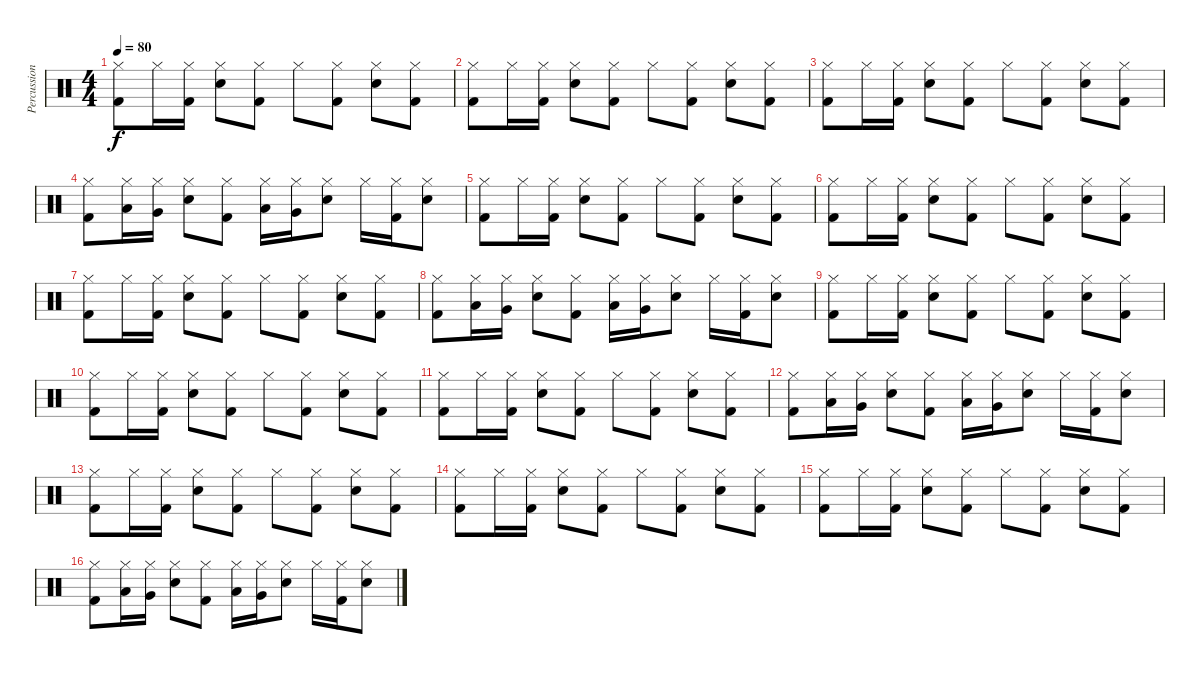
\track ("Percussion" "Percussion") {instrument percussion}
\staff {score}
\articulation defaults
\ts (4 4)
\tempo 80
\clef neutral
\ks c
("Hi-Hat (closed)" "Kick (hit) 2").8{dy f} "Hi-Hat (closed)".16 ("Hi-Hat (closed)" "Kick (hit) 2").16 ("Hi-Hat (closed)" "Snare (hit) 2").8 ("Hi-Hat (closed)" "Kick (hit) 2").8 "Hi-Hat (closed)".8 ("Hi-Hat (closed)" "Kick (hit) 2").8 ("Hi-Hat (closed)" "Snare (hit) 2").8 ("Hi-Hat (closed)" "Kick (hit) 2").8 |
("Hi-Hat (closed)" "Kick (hit) 2").8 "Hi-Hat (closed)".16 ("Hi-Hat (closed)" "Kick (hit) 2").16 ("Hi-Hat (closed)" "Snare (hit) 2").8 ("Hi-Hat (closed)" "Kick (hit) 2").8 "Hi-Hat (closed)".8 ("Hi-Hat (closed)" "Kick (hit) 2").8 ("Hi-Hat (closed)" "Snare (hit) 2").8 ("Hi-Hat (closed)" "Kick (hit) 2").8 |
("Hi-Hat (closed)" "Kick (hit) 2").8 "Hi-Hat (closed)".16 ("Hi-Hat (closed)" "Kick (hit) 2").16 ("Hi-Hat (closed)" "Snare (hit) 2").8 ("Hi-Hat (closed)" "Kick (hit) 2").8 "Hi-Hat (closed)".8 ("Hi-Hat (closed)" "Kick (hit) 2").8 ("Hi-Hat (closed)" "Snare (hit) 2").8 ("Hi-Hat (closed)" "Kick (hit) 2").8 |
("Hi-Hat (closed)" "Kick (hit) 2").8 ("Hi-Hat (closed)" "Low Tom (hit)").16 ("Hi-Hat (closed)" "Very Low Tom (hit)").16 ("Hi-Hat (closed)" "Snare (hit) 2").8 ("Hi-Hat (closed)" "Kick (hit) 2").8 ("Hi-Hat (closed)" "Low Tom (hit)").16 ("Hi-Hat (closed)" "Very Low Tom (hit)").16 ("Hi-Hat (closed)" "Snare (hit) 2").8 "Hi-Hat (closed)".16 ("Hi-Hat (closed)" "Kick (hit) 2").16 ("Hi-Hat (closed)" "Snare (hit) 2").8 |
("Hi-Hat (closed)" "Kick (hit) 2").8 "Hi-Hat (closed)".16 ("Hi-Hat (closed)" "Kick (hit) 2").16 ("Hi-Hat (closed)" "Snare (hit) 2").8 ("Hi-Hat (closed)" "Kick (hit) 2").8 "Hi-Hat (closed)".8 ("Hi-Hat (closed)" "Kick (hit) 2").8 ("Hi-Hat (closed)" "Snare (hit) 2").8 ("Hi-Hat (closed)" "Kick (hit) 2").8 |
("Hi-Hat (closed)" "Kick (hit) 2").8 "Hi-Hat (closed)".16 ("Hi-Hat (closed)" "Kick (hit) 2").16 ("Hi-Hat (closed)" "Snare (hit) 2").8 ("Hi-Hat (closed)" "Kick (hit) 2").8 "Hi-Hat (closed)".8 ("Hi-Hat (closed)" "Kick (hit) 2").8 ("Hi-Hat (closed)" "Snare (hit) 2").8 ("Hi-Hat (closed)" "Kick (hit) 2").8 |
("Hi-Hat (closed)" "Kick (hit) 2").8 "Hi-Hat (closed)".16 ("Hi-Hat (closed)" "Kick (hit) 2").16 ("Hi-Hat (closed)" "Snare (hit) 2").8 ("Hi-Hat (closed)" "Kick (hit) 2").8 "Hi-Hat (closed)".8 ("Hi-Hat (closed)" "Kick (hit) 2").8 ("Hi-Hat (closed)" "Snare (hit) 2").8 ("Hi-Hat (closed)" "Kick (hit) 2").8 |
("Hi-Hat (closed)" "Kick (hit) 2").8 ("Hi-Hat (closed)" "Low Tom (hit)").16 ("Hi-Hat (closed)" "Very Low Tom (hit)").16 ("Hi-Hat (closed)" "Snare (hit) 2").8 ("Hi-Hat (closed)" "Kick (hit) 2").8 ("Hi-Hat (closed)" "Low Tom (hit)").16 ("Hi-Hat (closed)" "Very Low Tom (hit)").16 ("Hi-Hat (closed)" "Snare (hit) 2").8 "Hi-Hat (closed)".16 ("Hi-Hat (closed)" "Kick (hit) 2").16 ("Hi-Hat (closed)" "Snare (hit) 2").8 |
("Hi-Hat (closed)" "Kick (hit) 2").8 "Hi-Hat (closed)".16 ("Hi-Hat (closed)" "Kick (hit) 2").16 ("Hi-Hat (closed)" "Snare (hit) 2").8 ("Hi-Hat (closed)" "Kick (hit) 2").8 "Hi-Hat (closed)".8 ("Hi-Hat (closed)" "Kick (hit) 2").8 ("Hi-Hat (closed)" "Snare (hit) 2").8 ("Hi-Hat (closed)" "Kick (hit) 2").8 |
("Hi-Hat (closed)" "Kick (hit) 2").8 "Hi-Hat (closed)".16 ("Hi-Hat (closed)" "Kick (hit) 2").16 ("Hi-Hat (closed)" "Snare (hit) 2").8 ("Hi-Hat (closed)" "Kick (hit) 2").8 "Hi-Hat (closed)".8 ("Hi-Hat (closed)" "Kick (hit) 2").8 ("Hi-Hat (closed)" "Snare (hit) 2").8 ("Hi-Hat (closed)" "Kick (hit) 2").8 |
("Hi-Hat (closed)" "Kick (hit) 2").8 "Hi-Hat (closed)".16 ("Hi-Hat (closed)" "Kick (hit) 2").16 ("Hi-Hat (closed)" "Snare (hit) 2").8 ("Hi-Hat (closed)" "Kick (hit) 2").8 "Hi-Hat (closed)".8 ("Hi-Hat (closed)" "Kick (hit) 2").8 ("Hi-Hat (closed)" "Snare (hit) 2").8 ("Hi-Hat (closed)" "Kick (hit) 2").8 |
("Hi-Hat (closed)" "Kick (hit) 2").8 ("Hi-Hat (closed)" "Low Tom (hit)").16 ("Hi-Hat (closed)" "Very Low Tom (hit)").16 ("Hi-Hat (closed)" "Snare (hit) 2").8 ("Hi-Hat (closed)" "Kick (hit) 2").8 ("Hi-Hat (closed)" "Low Tom (hit)").16 ("Hi-Hat (closed)" "Very Low Tom (hit)").16 ("Hi-Hat (closed)" "Snare (hit) 2").8 "Hi-Hat (closed)".16 ("Hi-Hat (closed)" "Kick (hit) 2").16 ("Hi-Hat (closed)" "Snare (hit) 2").8 |
("Hi-Hat (closed)" "Kick (hit) 2").8 "Hi-Hat (closed)".16 ("Hi-Hat (closed)" "Kick (hit) 2").16 ("Hi-Hat (closed)" "Snare (hit) 2").8 ("Hi-Hat (closed)" "Kick (hit) 2").8 "Hi-Hat (closed)".8 ("Hi-Hat (closed)" "Kick (hit) 2").8 ("Hi-Hat (closed)" "Snare (hit) 2").8 ("Hi-Hat (closed)" "Kick (hit) 2").8 |
("Hi-Hat (closed)" "Kick (hit) 2").8 "Hi-Hat (closed)".16 ("Hi-Hat (closed)" "Kick (hit) 2").16 ("Hi-Hat (closed)" "Snare (hit) 2").8 ("Hi-Hat (closed)" "Kick (hit) 2").8 "Hi-Hat (closed)".8 ("Hi-Hat (closed)" "Kick (hit) 2").8 ("Hi-Hat (closed)" "Snare (hit) 2").8 ("Hi-Hat (closed)" "Kick (hit) 2").8 |
("Hi-Hat (closed)" "Kick (hit) 2").8 "Hi-Hat (closed)".16 ("Hi-Hat (closed)" "Kick (hit) 2").16 ("Hi-Hat (closed)" "Snare (hit) 2").8 ("Hi-Hat (closed)" "Kick (hit) 2").8 "Hi-Hat (closed)".8 ("Hi-Hat (closed)" "Kick (hit) 2").8 ("Hi-Hat (closed)" "Snare (hit) 2").8 ("Hi-Hat (closed)" "Kick (hit) 2").8 |
("Hi-Hat (closed)" "Kick (hit) 2").8 ("Hi-Hat (closed)" "Low Tom (hit)").16 ("Hi-Hat (closed)" "Very Low Tom (hit)").16 ("Hi-Hat (closed)" "Snare (hit) 2").8 ("Hi-Hat (closed)" "Kick (hit) 2").8 ("Hi-Hat (closed)" "Low Tom (hit)").16 ("Hi-Hat (closed)" "Very Low Tom (hit)").16 ("Hi-Hat (closed)" "Snare (hit) 2").8 "Hi-Hat (closed)".16 ("Hi-Hat (closed)" "Kick (hit) 2").16 ("Hi-Hat (closed)" "Snare (hit) 2").8
